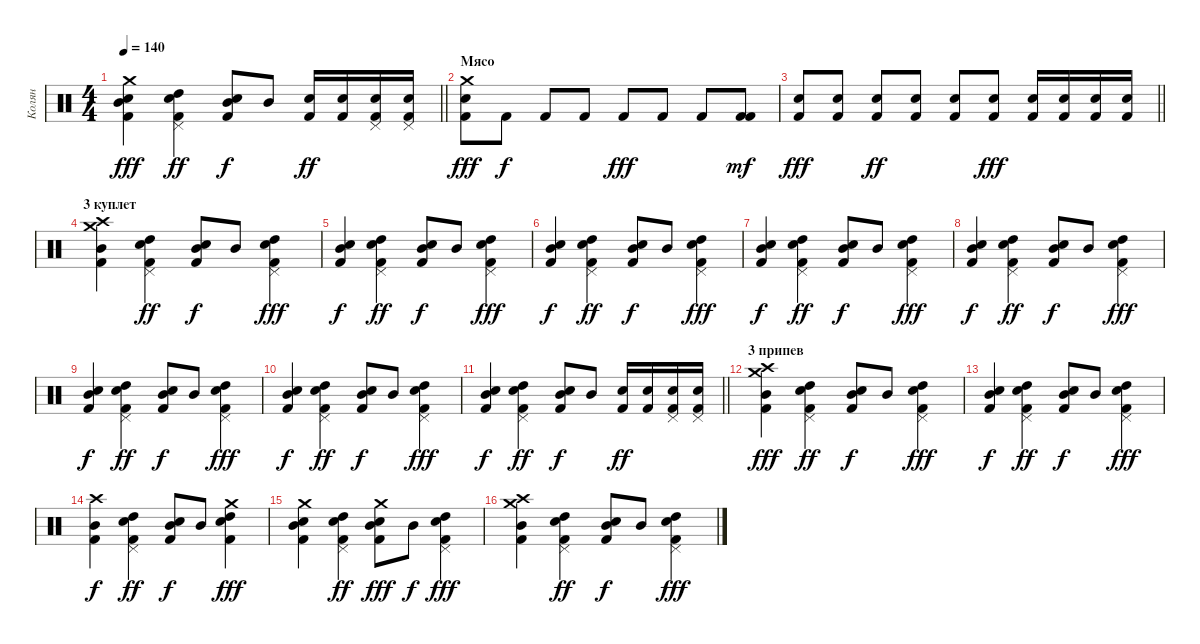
\track ("Колян" "Колян") {instrument percussion}
\staff {score}
\articulation defaults
\ts (4 4)
\tempo 140
\clef neutral
\barLineRight lightlight
\ks c
("Crash medium (hit)" "Mid Tom (hit)" "Snare (hit) 2" "Kick (hit) 2").4{dy fff} ("Pedal Hi-Hat (hit)" "High Tom (hit)" "Snare (hit) 2" "Kick (hit) 2").4{dy ff} ("Mid Tom (hit)" "Snare (hit) 2" "Kick (hit) 2").8{dy f} "Mid Tom (hit)".8 ("Snare (hit) 2" "Kick (hit) 2").16{dy ff} ("Snare (hit) 2" "Kick (hit) 2").16 ("Pedal Hi-Hat (hit)" "Snare (hit) 2" "Kick (hit) 2").16 ("Pedal Hi-Hat (hit)" "Snare (hit) 2" "Kick (hit) 2").16 |
\section ("" "Мясо")
("Crash medium (hit)" "Snare (hit) 2" "Kick (hit) 2").8{dy fff} "Kick (hit) 2".8{dy f} "Kick (hit) 2".8 "Kick (hit) 2".8 "Kick (hit) 2".8{dy fff} "Kick (hit) 2".8 "Kick (hit) 2".8 ("Kick (hit) 2" "Kick (hit) 2").8{dy mf} |
\barLineRight lightlight
("Snare (hit) 2" "Kick (hit) 2").8{dy fff} ("Snare (hit) 2" "Kick (hit) 2").8 ("Snare (hit) 2" "Kick (hit) 2").8{dy ff} ("Snare (hit) 2" "Kick (hit) 2").8 ("Snare (hit) 2" "Kick (hit) 2").8 ("Snare (hit) 2" "Kick (hit) 2").8{dy fff} ("Snare (hit) 2" "Kick (hit) 2").16 ("Snare (hit) 2" "Kick (hit) 2").16 ("Snare (hit) 2" "Kick (hit) 2").16 ("Snare (hit) 2" "Kick (hit) 2").16 |
\section ("" "3 куплет")
("Crash medium (hit)" "Mid Tom (hit)" "Crash high (hit)" "Kick (hit) 2").4 ("Pedal Hi-Hat (hit)" "High Tom (hit)" "Snare (hit) 2" "Kick (hit) 2").4{dy ff} ("Mid Tom (hit)" "Snare (hit) 2" "Kick (hit) 2").8{dy f} "Mid Tom (hit)".8 ("Pedal Hi-Hat (hit)" "High Tom (hit)" "Snare (hit) 2" "Kick (hit) 2").4{dy fff} |
("Mid Tom (hit)" "Snare (hit) 2" "Kick (hit) 2").4{dy f} ("Pedal Hi-Hat (hit)" "High Tom (hit)" "Snare (hit) 2" "Kick (hit) 2").4{dy ff} ("Mid Tom (hit)" "Snare (hit) 2" "Kick (hit) 2").8{dy f} "Mid Tom (hit)".8 ("Pedal Hi-Hat (hit)" "High Tom (hit)" "Snare (hit) 2" "Kick (hit) 2").4{dy fff} |
("Mid Tom (hit)" "Snare (hit) 2" "Kick (hit) 2").4{dy f} ("Pedal Hi-Hat (hit)" "High Tom (hit)" "Snare (hit) 2" "Kick (hit) 2").4{dy ff} ("Mid Tom (hit)" "Snare (hit) 2" "Kick (hit) 2").8{dy f} "Mid Tom (hit)".8 ("Pedal Hi-Hat (hit)" "High Tom (hit)" "Snare (hit) 2" "Kick (hit) 2").4{dy fff} |
("Mid Tom (hit)" "Snare (hit) 2" "Kick (hit) 2").4{dy f} ("Pedal Hi-Hat (hit)" "High Tom (hit)" "Snare (hit) 2" "Kick (hit) 2").4{dy ff} ("Mid Tom (hit)" "Snare (hit) 2" "Kick (hit) 2").8{dy f} "Mid Tom (hit)".8 ("Pedal Hi-Hat (hit)" "High Tom (hit)" "Snare (hit) 2" "Kick (hit) 2").4{dy fff} |
("Mid Tom (hit)" "Snare (hit) 2" "Kick (hit) 2").4{dy f} ("Pedal Hi-Hat (hit)" "High Tom (hit)" "Snare (hit) 2" "Kick (hit) 2").4{dy ff} ("Mid Tom (hit)" "Snare (hit) 2" "Kick (hit) 2").8{dy f} "Mid Tom (hit)".8 ("Pedal Hi-Hat (hit)" "High Tom (hit)" "Snare (hit) 2" "Kick (hit) 2").4{dy fff} |
("Mid Tom (hit)" "Snare (hit) 2" "Kick (hit) 2").4{dy f} ("Pedal Hi-Hat (hit)" "High Tom (hit)" "Snare (hit) 2" "Kick (hit) 2").4{dy ff} ("Mid Tom (hit)" "Snare (hit) 2" "Kick (hit) 2").8{dy f} "Mid Tom (hit)".8 ("Pedal Hi-Hat (hit)" "High Tom (hit)" "Snare (hit) 2" "Kick (hit) 2").4{dy fff} |
("Mid Tom (hit)" "Snare (hit) 2" "Kick (hit) 2").4{dy f} ("Pedal Hi-Hat (hit)" "High Tom (hit)" "Snare (hit) 2" "Kick (hit) 2").4{dy ff} ("Mid Tom (hit)" "Snare (hit) 2" "Kick (hit) 2").8{dy f} "Mid Tom (hit)".8 ("Pedal Hi-Hat (hit)" "High Tom (hit)" "Snare (hit) 2" "Kick (hit) 2").4{dy fff} |
\barLineRight lightlight
("Mid Tom (hit)" "Snare (hit) 2" "Kick (hit) 2").4{dy f} ("Pedal Hi-Hat (hit)" "High Tom (hit)" "Snare (hit) 2" "Kick (hit) 2").4{dy ff} ("Mid Tom (hit)" "Snare (hit) 2" "Kick (hit) 2").8{dy f} "Mid Tom (hit)".8 ("Snare (hit) 2" "Kick (hit) 2").16{dy ff} ("Snare (hit) 2" "Kick (hit) 2").16 ("Pedal Hi-Hat (hit)" "Snare (hit) 2" "Kick (hit) 2").16 ("Pedal Hi-Hat (hit)" "Snare (hit) 2" "Kick (hit) 2").16 |
\section ("" "3 припев")
("Crash medium (hit)" "Mid Tom (hit)" "Crash high (hit)" "Kick (hit) 2").4{dy fff} ("Pedal Hi-Hat (hit)" "High Tom (hit)" "Snare (hit) 2" "Kick (hit) 2").4{dy ff} ("Mid Tom (hit)" "Snare (hit) 2" "Kick (hit) 2").8{dy f} "Mid Tom (hit)".8 ("Pedal Hi-Hat (hit)" "High Tom (hit)" "Snare (hit) 2" "Kick (hit) 2").4{dy fff} |
("Mid Tom (hit)" "Snare (hit) 2" "Kick (hit) 2").4{dy f} ("Pedal Hi-Hat (hit)" "High Tom (hit)" "Snare (hit) 2" "Kick (hit) 2").4{dy ff} ("Mid Tom (hit)" "Snare (hit) 2" "Kick (hit) 2").8{dy f} "Mid Tom (hit)".8 ("Pedal Hi-Hat (hit)" "High Tom (hit)" "Snare (hit) 2" "Kick (hit) 2").4{dy fff} |
("Mid Tom (hit)" "Crash high (hit)" "Kick (hit) 2").4{dy f} ("Pedal Hi-Hat (hit)" "High Tom (hit)" "Snare (hit) 2" "Kick (hit) 2").4{dy ff} ("Mid Tom (hit)" "Snare (hit) 2" "Kick (hit) 2").8{dy f} "Mid Tom (hit)".8 ("Crash medium (hit)" "High Tom (hit)" "Snare (hit) 2" "Kick (hit) 2").4{dy fff} |
("Crash medium (hit)" "Mid Tom (hit)" "Snare (hit) 2" "Kick (hit) 2").4 ("Pedal Hi-Hat (hit)" "High Tom (hit)" "Snare (hit) 2" "Kick (hit) 2").4{dy ff} ("Crash medium (hit)" "Mid Tom (hit)" "Snare (hit) 2" "Kick (hit) 2").8{dy fff} "Mid Tom (hit)".8{dy f} ("Pedal Hi-Hat (hit)" "High Tom (hit)" "Snare (hit) 2" "Kick (hit) 2").4{dy fff} |
("Crash medium (hit)" "Mid Tom (hit)" "Crash high (hit)" "Kick (hit) 2").4 ("Pedal Hi-Hat (hit)" "High Tom (hit)" "Snare (hit) 2" "Kick (hit) 2").4{dy ff} ("Mid Tom (hit)" "Snare (hit) 2" "Kick (hit) 2").8{dy f} "Mid Tom (hit)".8 ("Pedal Hi-Hat (hit)" "High Tom (hit)" "Snare (hit) 2" "Kick (hit) 2").4{dy fff}
